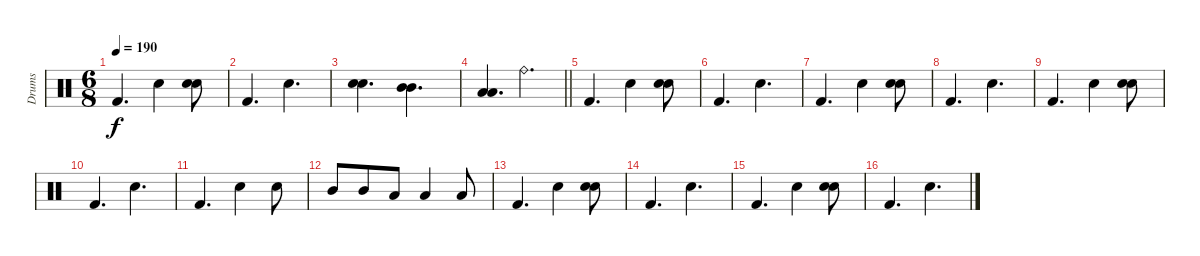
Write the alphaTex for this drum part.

\track ("Drums" "Drums") {instrument percussion}
\staff {score}
\articulation defaults
\ts (6 8)
\tempo 190
\clef neutral
\ks c "Kick (hit) 2".4{d dy f} "Electric Snare (hit)".4
("Electric Snare (hit)" "Electric Snare (hit)").8{bd 480} |
"Kick (hit) 2".4{d} "Electric Snare (hit)".4{d} |
("Electric Snare (hit)" "Electric Snare (hit)").4{d bd 480} ("Mid Tom (hit)" "Mid Tom (hit)").4{d bd 480} |
\barLineRight lightlight
("Low Tom (hit)" "Low Tom (hit)").4{d bd 480} "Ride (bell)".4{d} |
"Kick (hit) 2".4{d} "Electric Snare (hit)".4 ("Electric Snare (hit)" "Electric Snare (hit)").8{bd 480} |
"Kick (hit) 2".4{d} "Electric Snare (hit)".4{d} |
"Kick (hit) 2".4{d} "Electric Snare (hit)".4 ("Electric Snare (hit)" "Electric Snare (hit)").8{bd 480} |
"Kick (hit) 2".4{d} "Electric Snare (hit)".4{d} |
"Kick (hit) 2".4{d} "Electric Snare (hit)".4 ("Electric Snare (hit)" "Electric Snare (hit)").8{bd 480} |
"Kick (hit) 2".4{d} "Electric Snare (hit)".4{d} |
"Kick (hit) 2".4{d} "Electric Snare (hit)".4 "Electric Snare (hit)".8 |
"Mid Tom (hit)".8 "Mid Tom (hit)".8 "Low Tom (hit)".8 "Low Tom (hit)".4 "Low Tom (hit)".8 |
"Kick (hit) 2".4{d} "Electric Snare (hit)".4 ("Electric Snare (hit)" "Electric Snare (hit)").8{bd 480} |
"Kick (hit) 2".4{d} "Electric Snare (hit)".4{d} |
"Kick (hit) 2".4{d} "Electric Snare (hit)".4 ("Electric Snare (hit)" "Electric Snare (hit)").8{bd 480} |
"Kick (hit) 2".4{d} "Electric Snare (hit)".4{d}
